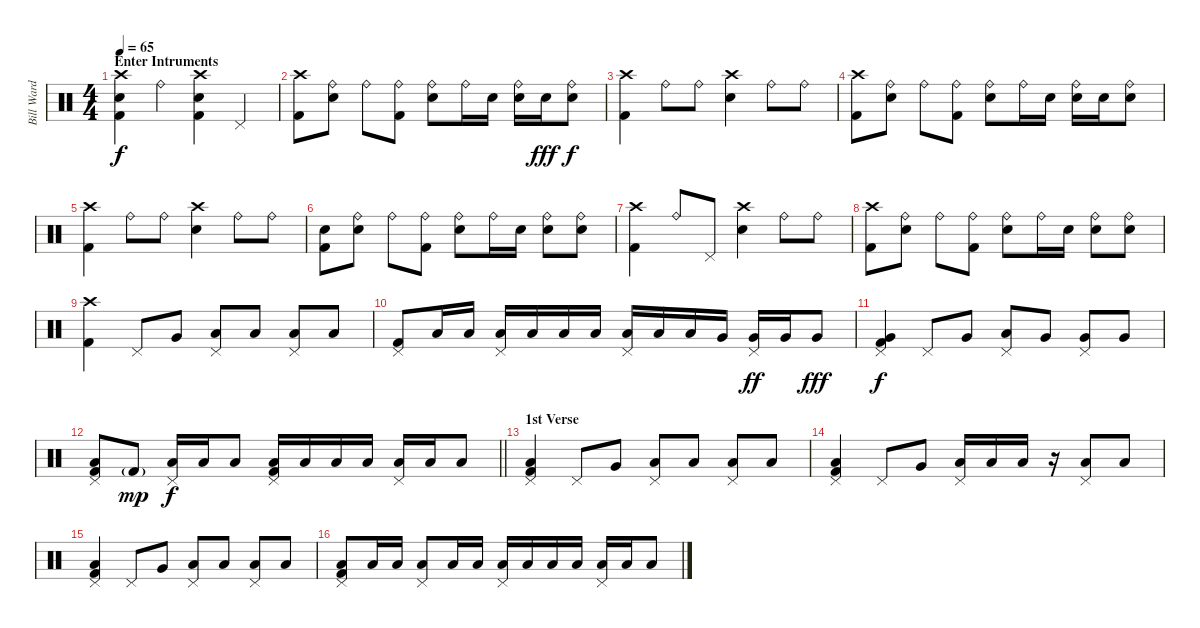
\track ("Bill Ward" "Bill Ward") {instrument percussion}
\staff {score}
\articulation defaults
\ts (4 4)
\section ("" "Enter Intruments")
\tempo 65
\clef neutral
\ks c
("Crash high (hit)" "Snare (hit) 2" "Kick (hit) 2").4{dy f} "Ride (bell)".4 ("Crash high (hit)" "Snare (hit) 2" "Kick (hit) 2").4 "Pedal Hi-Hat (hit)".4 |
("Crash high (hit)" "Kick (hit) 2").8 ("Ride (bell)" "Snare (hit) 2").8 "Ride (bell)".8 ("Ride (bell)" "Kick (hit) 2").8 ("Ride (bell)" "Snare (hit) 2").8 "Ride (bell)".16 "Snare (hit) 2".16 ("Ride (bell)" "Snare (hit) 2").16 "Snare (hit) 2".16{dy fff} ("Ride (bell)" "Snare (hit) 2").8{dy f} |
("Crash high (hit)" "Kick (hit) 2").4 "Ride (bell)".8 "Ride (bell)".8 ("Crash high (hit)" "Snare (hit) 2").4 "Ride (bell)".8 "Ride (bell)".8 |
("Crash high (hit)" "Kick (hit) 2").8 ("Ride (bell)" "Snare (hit) 2").8 "Ride (bell)".8 ("Ride (bell)" "Kick (hit) 2").8 ("Ride (bell)" "Snare (hit) 2").8 "Ride (bell)".16 "Snare (hit) 2".16 ("Ride (bell)" "Snare (hit) 2").16 "Snare (hit) 2".16 ("Ride (bell)" "Snare (hit) 2").8 |
("Crash high (hit)" "Kick (hit) 2").4 "Ride (bell)".8 "Ride (bell)".8 ("Crash high (hit)" "Snare (hit) 2").4 "Ride (bell)".8 "Ride (bell)".8 |
("Snare (hit) 2" "Kick (hit) 2").8 ("Ride (bell)" "Snare (hit) 2").8 "Ride (bell)".8 ("Ride (bell)" "Kick (hit) 2").8 ("Ride (bell)" "Snare (hit) 2").8 "Ride (bell)".16 "Snare (hit) 2".16 ("Ride (bell)" "Snare (hit) 2").8 ("Ride (bell)" "Snare (hit) 2").8 |
("Crash high (hit)" "Kick (hit) 2").4 "Ride (bell)".8 "Pedal Hi-Hat (hit)".8 ("Crash high (hit)" "Snare (hit) 2").4 "Ride (bell)".8 "Ride (bell)".8 |
("Crash high (hit)" "Kick (hit) 2").8 ("Ride (bell)" "Snare (hit) 2").8 "Ride (bell)".8 ("Ride (bell)" "Kick (hit) 2").8 ("Ride (bell)" "Snare (hit) 2").8 "Ride (bell)".16 "Snare (hit) 2".16 ("Ride (bell)" "Snare (hit) 2").8 ("Ride (bell)" "Snare (hit) 2").8 |
("Crash high (hit)" "Kick (hit) 2").4{volume 8} "Pedal Hi-Hat (hit)".8 "Very Low Tom (hit)".8 ("Pedal Hi-Hat (hit)" "Low Floor Tom (hit)").8 "Low Floor Tom (hit)".8 ("Pedal Hi-Hat (hit)" "Low Floor Tom (hit)").8 "Low Floor Tom (hit)".8 |
("Pedal Hi-Hat (hit)" "Kick (hit) 2").8 "Low Floor Tom (hit)".16 "Low Floor Tom (hit)".16 ("Pedal Hi-Hat (hit)" "Low Floor Tom (hit)").16 "Low Floor Tom (hit)".16 "Low Floor Tom (hit)".16 "Low Floor Tom (hit)".16 ("Pedal Hi-Hat (hit)" "Low Floor Tom (hit)").16 "Low Floor Tom (hit)".16 "Low Floor Tom (hit)".16 "Very Low Tom (hit)".16 ("Pedal Hi-Hat (hit)" "Very Low Tom (hit)").16{dy ff} "Very Low Tom (hit)".16 "Very Low Tom (hit)".8{dy fff} |
("Pedal Hi-Hat (hit)" "Very Low Tom (hit)" "Kick (hit) 2").4{dy f} "Pedal Hi-Hat (hit)".8 "Very Low Tom (hit)".8 ("Pedal Hi-Hat (hit)" "Low Floor Tom (hit)").8 "Very Low Tom (hit)".8 ("Pedal Hi-Hat (hit)" "Very Low Tom (hit)").8 "Very Low Tom (hit)".8 |
\barLineRight lightlight
("Pedal Hi-Hat (hit)" "Low Floor Tom (hit)" "Kick (hit) 2").8 "Kick (hit) 2"{g}.8{dy mp} ("Pedal Hi-Hat (hit)" "Low Floor Tom (hit)").16{dy f} "Low Floor Tom (hit)".16 "Low Floor Tom (hit)".8 ("Pedal Hi-Hat (hit)" "Low Floor Tom (hit)" "Kick (hit) 2").16 "Low Floor Tom (hit)".16 "Low Floor Tom (hit)".16 "Low Floor Tom (hit)".16 ("Pedal Hi-Hat (hit)" "Low Floor Tom (hit)").16 "Low Floor Tom (hit)".16 "Low Floor Tom (hit)".8 |
\section ("" "1st Verse")
("Pedal Hi-Hat (hit)" "Low Floor Tom (hit)" "Kick (hit) 2").4 "Pedal Hi-Hat (hit)".8 "Very Low Tom (hit)".8 ("Pedal Hi-Hat (hit)" "Low Floor Tom (hit)").8 "Low Floor Tom (hit)".8 ("Pedal Hi-Hat (hit)" "Low Floor Tom (hit)").8 "Low Floor Tom (hit)".8 |
("Pedal Hi-Hat (hit)" "Low Floor Tom (hit)" "Kick (hit) 2").4 "Pedal Hi-Hat (hit)".8 "Very Low Tom (hit)".8 ("Pedal Hi-Hat (hit)" "Low Floor Tom (hit)").16 "Low Floor Tom (hit)".16 "Low Floor Tom (hit)".16 r.16 ("Pedal Hi-Hat (hit)" "Low Floor Tom (hit)").8 "Low Floor Tom (hit)".8 |
("Pedal Hi-Hat (hit)" "Low Floor Tom (hit)" "Kick (hit) 2").4 "Pedal Hi-Hat (hit)".8 "Very Low Tom (hit)".8 ("Pedal Hi-Hat (hit)" "Low Floor Tom (hit)").8 "Low Floor Tom (hit)".8 ("Pedal Hi-Hat (hit)" "Low Floor Tom (hit)").8 "Low Floor Tom (hit)".8 |
("Pedal Hi-Hat (hit)" "Low Floor Tom (hit)" "Kick (hit) 2").8 "Low Floor Tom (hit)".16 "Low Floor Tom (hit)".16 ("Pedal Hi-Hat (hit)" "Low Floor Tom (hit)").8 "Low Floor Tom (hit)".16 "Low Floor Tom (hit)".16 ("Pedal Hi-Hat (hit)" "Low Floor Tom (hit)").16 "Low Floor Tom (hit)".16 "Low Floor Tom (hit)".16 "Low Floor Tom (hit)".16 ("Pedal Hi-Hat (hit)" "Low Floor Tom (hit)").16 "Low Floor Tom (hit)".16 "Low Floor Tom (hit)".8
